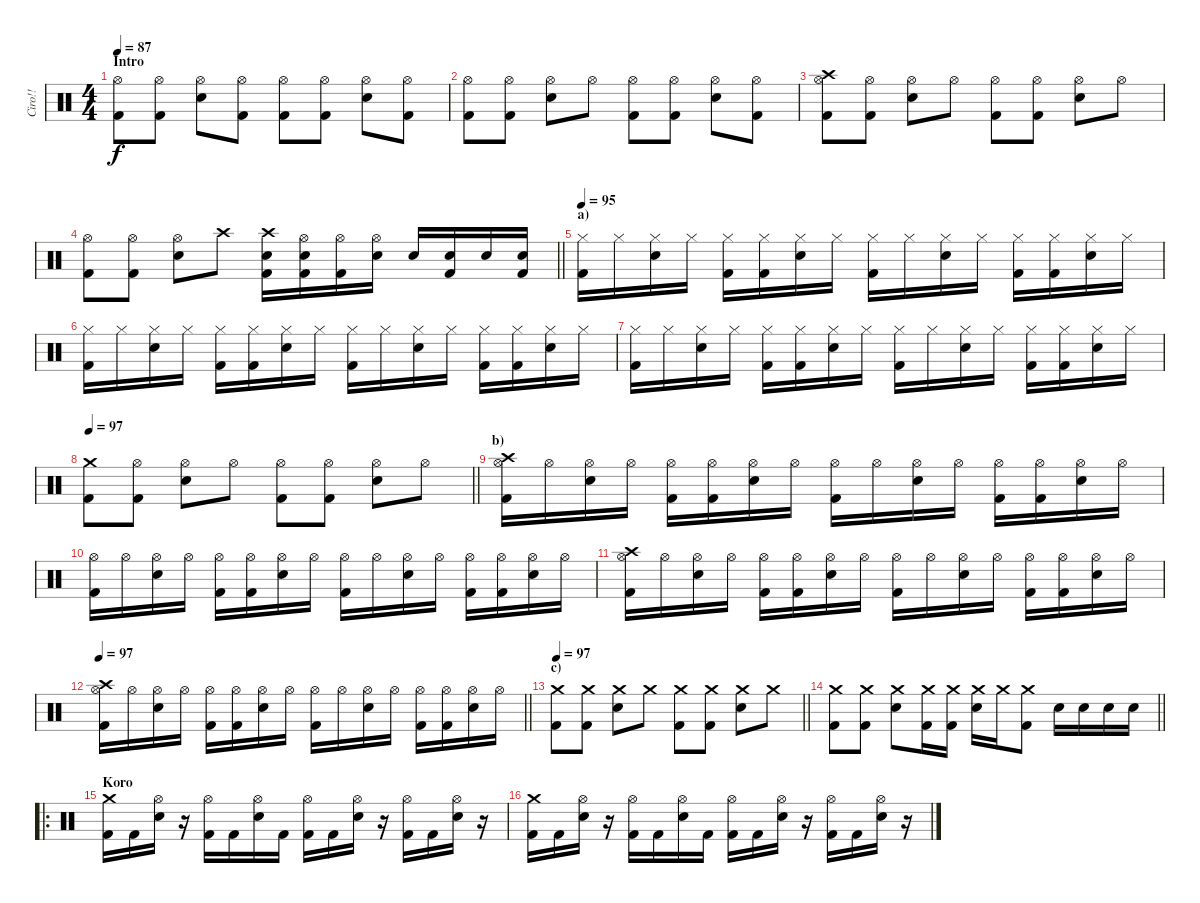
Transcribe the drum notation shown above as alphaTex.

\track ("Ciro!!" "Ciro!!") {instrument percussion}
\staff {score}
\articulation defaults
\ts (4 4)
\section ("" "Intro")
\tempo 87
\tempo 97
\tempo 87
\clef neutral
\ks c
("Hi-Hat (open)" "Kick (hit) 2").8{dy f} ("Hi-Hat (open)" "Kick (hit) 2").8 ("Hi-Hat (open)" "Electric Snare (hit)").8 ("Hi-Hat (open)" "Kick (hit) 2").8 ("Hi-Hat (open)" "Kick (hit) 2").8 ("Hi-Hat (open)" "Kick (hit) 2").8 ("Hi-Hat (open)" "Electric Snare (hit)").8 ("Hi-Hat (open)" "Kick (hit) 2").8 |
("Hi-Hat (open)" "Kick (hit) 2").8 ("Hi-Hat (open)" "Kick (hit) 2").8 ("Hi-Hat (open)" "Electric Snare (hit)").8 "Hi-Hat (open)".8 ("Hi-Hat (open)" "Kick (hit) 2").8 ("Hi-Hat (open)" "Kick (hit) 2").8 ("Hi-Hat (open)" "Electric Snare (hit)").8 ("Hi-Hat (open)" "Kick (hit) 2").8 |
("Crash high (hit)" "Hi-Hat (open)" "Kick (hit) 2").8 ("Hi-Hat (open)" "Kick (hit) 2").8 ("Hi-Hat (open)" "Electric Snare (hit)").8 "Hi-Hat (open)".8 ("Hi-Hat (open)" "Kick (hit) 2").8 ("Hi-Hat (open)" "Kick (hit) 2").8 ("Hi-Hat (open)" "Electric Snare (hit)").8 "Hi-Hat (open)".8 |
\barLineRight lightlight
("Hi-Hat (open)" "Kick (hit) 2").8 ("Hi-Hat (open)" "Kick (hit) 2").8 ("Hi-Hat (open)" "Electric Snare (hit)").8 "Crash high (hit)".8 ("Crash high (hit)" "Electric Snare (hit)" "Kick (hit) 2").16 ("Hi-Hat (open)" "Electric Snare (hit)" "Kick (hit) 2").16 ("Hi-Hat (open)" "Kick (hit) 2").16 ("Hi-Hat (open)" "Electric Snare (hit)").16 "Electric Snare (hit)".16 ("Electric Snare (hit)" "Kick (hit) 2").16 "Electric Snare (hit)".16 ("Electric Snare (hit)" "Kick (hit) 2").16 |
\section ("" "a)")
\tempo 95
("Hi-Hat (closed)" "Kick (hit) 2").16 "Hi-Hat (closed)".16 ("Hi-Hat (closed)" "Electric Snare (hit)").16 "Hi-Hat (closed)".16 ("Hi-Hat (closed)" "Kick (hit) 2").16 ("Hi-Hat (closed)" "Kick (hit) 2").16 ("Hi-Hat (closed)" "Electric Snare (hit)").16 "Hi-Hat (closed)".16 ("Hi-Hat (closed)" "Kick (hit) 2").16 "Hi-Hat (closed)".16 ("Hi-Hat (closed)" "Electric Snare (hit)").16 "Hi-Hat (closed)".16 ("Hi-Hat (closed)" "Kick (hit) 2").16 ("Hi-Hat (closed)" "Kick (hit) 2").16 ("Hi-Hat (closed)" "Electric Snare (hit)").16 "Hi-Hat (closed)".16 |
("Hi-Hat (closed)" "Kick (hit) 2").16 "Hi-Hat (closed)".16 ("Hi-Hat (closed)" "Electric Snare (hit)").16 "Hi-Hat (closed)".16 ("Hi-Hat (closed)" "Kick (hit) 2").16 ("Hi-Hat (closed)" "Kick (hit) 2").16 ("Hi-Hat (closed)" "Electric Snare (hit)").16 "Hi-Hat (closed)".16 ("Hi-Hat (closed)" "Kick (hit) 2").16 "Hi-Hat (closed)".16 ("Hi-Hat (closed)" "Electric Snare (hit)").16 "Hi-Hat (closed)".16 ("Hi-Hat (closed)" "Kick (hit) 2").16 ("Hi-Hat (closed)" "Kick (hit) 2").16 ("Hi-Hat (closed)" "Electric Snare (hit)").16 "Hi-Hat (closed)".16 |
("Hi-Hat (closed)" "Kick (hit) 2").16 "Hi-Hat (closed)".16 ("Hi-Hat (closed)" "Electric Snare (hit)").16 "Hi-Hat (closed)".16 ("Hi-Hat (closed)" "Kick (hit) 2").16 ("Hi-Hat (closed)" "Kick (hit) 2").16 ("Hi-Hat (closed)" "Electric Snare (hit)").16 "Hi-Hat (closed)".16 ("Hi-Hat (closed)" "Kick (hit) 2").16 "Hi-Hat (closed)".16 ("Hi-Hat (closed)" "Electric Snare (hit)").16 "Hi-Hat (closed)".16 ("Hi-Hat (closed)" "Kick (hit) 2").16 ("Hi-Hat (closed)" "Kick (hit) 2").16 ("Hi-Hat (closed)" "Electric Snare (hit)").16 "Hi-Hat (closed)".16 |
\tempo 97
\barLineRight lightlight
("Crash medium (hit)" "Kick (hit) 2").8 ("Hi-Hat (open)" "Kick (hit) 2").8 ("Hi-Hat (open)" "Electric Snare (hit)").8 "Hi-Hat (open)".8 ("Hi-Hat (open)" "Kick (hit) 2").8 ("Hi-Hat (open)" "Kick (hit) 2").8 ("Hi-Hat (open)" "Electric Snare (hit)").8 "Hi-Hat (open)".8 |
\section ("" "b)")
("Hi-Hat (open)" "Crash high (hit)" "Kick (hit) 2").16 "Hi-Hat (open)".16 ("Hi-Hat (open)" "Electric Snare (hit)").16 "Hi-Hat (open)".16 ("Hi-Hat (open)" "Kick (hit) 2").16 ("Hi-Hat (open)" "Kick (hit) 2").16 ("Hi-Hat (open)" "Electric Snare (hit)").16 "Hi-Hat (open)".16 ("Hi-Hat (open)" "Kick (hit) 2").16 "Hi-Hat (open)".16 ("Hi-Hat (open)" "Electric Snare (hit)").16 "Hi-Hat (open)".16 ("Hi-Hat (open)" "Kick (hit) 2").16 ("Hi-Hat (open)" "Kick (hit) 2").16 ("Hi-Hat (open)" "Electric Snare (hit)").16 "Hi-Hat (open)".16 |
("Hi-Hat (open)" "Kick (hit) 2").16 "Hi-Hat (open)".16 ("Hi-Hat (open)" "Electric Snare (hit)").16 "Hi-Hat (open)".16 ("Hi-Hat (open)" "Kick (hit) 2").16 ("Hi-Hat (open)" "Kick (hit) 2").16 ("Hi-Hat (open)" "Electric Snare (hit)").16 "Hi-Hat (open)".16 ("Hi-Hat (open)" "Kick (hit) 2").16 "Hi-Hat (open)".16 ("Hi-Hat (open)" "Electric Snare (hit)").16 "Hi-Hat (open)".16 ("Hi-Hat (open)" "Kick (hit) 2").16 ("Hi-Hat (open)" "Kick (hit) 2").16 ("Hi-Hat (open)" "Electric Snare (hit)").16 "Hi-Hat (open)".16 |
("Hi-Hat (open)" "Crash high (hit)" "Kick (hit) 2").16 "Hi-Hat (open)".16 ("Hi-Hat (open)" "Electric Snare (hit)").16 "Hi-Hat (open)".16 ("Hi-Hat (open)" "Kick (hit) 2").16 ("Hi-Hat (open)" "Kick (hit) 2").16 ("Hi-Hat (open)" "Electric Snare (hit)").16 "Hi-Hat (open)".16 ("Hi-Hat (open)" "Kick (hit) 2").16 "Hi-Hat (open)".16 ("Hi-Hat (open)" "Electric Snare (hit)").16 "Hi-Hat (open)".16 ("Hi-Hat (open)" "Kick (hit) 2").16 ("Hi-Hat (open)" "Kick (hit) 2").16 ("Hi-Hat (open)" "Electric Snare (hit)").16 "Hi-Hat (open)".16 |
\tempo 97
\barLineRight lightlight
("Hi-Hat (open)" "Crash high (hit)" "Kick (hit) 2").16 "Hi-Hat (open)".16 ("Hi-Hat (open)" "Electric Snare (hit)").16 "Hi-Hat (open)".16 ("Hi-Hat (open)" "Kick (hit) 2").16 ("Hi-Hat (open)" "Kick (hit) 2").16 ("Hi-Hat (open)" "Electric Snare (hit)").16 "Hi-Hat (open)".16 ("Hi-Hat (open)" "Kick (hit) 2").16 "Hi-Hat (open)".16 ("Hi-Hat (open)" "Electric Snare (hit)").16 "Hi-Hat (open)".16 ("Hi-Hat (open)" "Kick (hit) 2").16 ("Hi-Hat (open)" "Kick (hit) 2").16 ("Hi-Hat (open)" "Electric Snare (hit)").16 "Hi-Hat (open)".16 |
\section ("" "c)")
\tempo 97
\barLineRight lightlight
("Crash medium (hit)" "Kick (hit) 2").8 ("Crash medium (hit)" "Kick (hit) 2").8 ("Crash medium (hit)" "Electric Snare (hit)").8 "Crash medium (hit)".8 ("Crash medium (hit)" "Kick (hit) 2").8 ("Crash medium (hit)" "Kick (hit) 2").8 ("Crash medium (hit)" "Electric Snare (hit)").8 "Crash medium (hit)".8 |
\section ("" "")
\barLineRight lightlight
("Crash medium (hit)" "Kick (hit) 2").8 ("Crash medium (hit)" "Kick (hit) 2").8 ("Crash medium (hit)" "Electric Snare (hit)").8 ("Crash medium (hit)" "Kick (hit) 2").16 ("Crash medium (hit)" "Kick (hit) 2").16 ("Crash medium (hit)" "Electric Snare (hit)").16 "Crash medium (hit)".16 ("Crash medium (hit)" "Kick (hit) 2").8 "Electric Snare (hit)".16 "Electric Snare (hit)".16 "Electric Snare (hit)".16 "Electric Snare (hit)".16 |
\ro
\section ("" "Koro")
("Crash medium (hit)" "Kick (hit) 2").16 "Kick (hit) 2".16 ("Hi-Hat (open)" "Electric Snare (hit)").16 r.16 ("Hi-Hat (open)" "Kick (hit) 2").16 "Kick (hit) 2".16 ("Hi-Hat (open)" "Electric Snare (hit)").16 "Kick (hit) 2".16 ("Hi-Hat (open)" "Kick (hit) 2").16 "Kick (hit) 2".16 ("Hi-Hat (open)" "Electric Snare (hit)").16 r.16 ("Hi-Hat (open)" "Kick (hit) 2").16 "Kick (hit) 2".16 ("Hi-Hat (open)" "Electric Snare (hit)").16 r.16 |
("Crash medium (hit)" "Kick (hit) 2").16 "Kick (hit) 2".16 ("Hi-Hat (open)" "Electric Snare (hit)").16 r.16 ("Hi-Hat (open)" "Kick (hit) 2").16 "Kick (hit) 2".16 ("Hi-Hat (open)" "Electric Snare (hit)").16 "Kick (hit) 2".16 ("Hi-Hat (open)" "Kick (hit) 2").16 "Kick (hit) 2".16 ("Hi-Hat (open)" "Electric Snare (hit)").16 r.16 ("Hi-Hat (open)" "Kick (hit) 2").16 "Kick (hit) 2".16 ("Hi-Hat (open)" "Electric Snare (hit)").16 r.16
